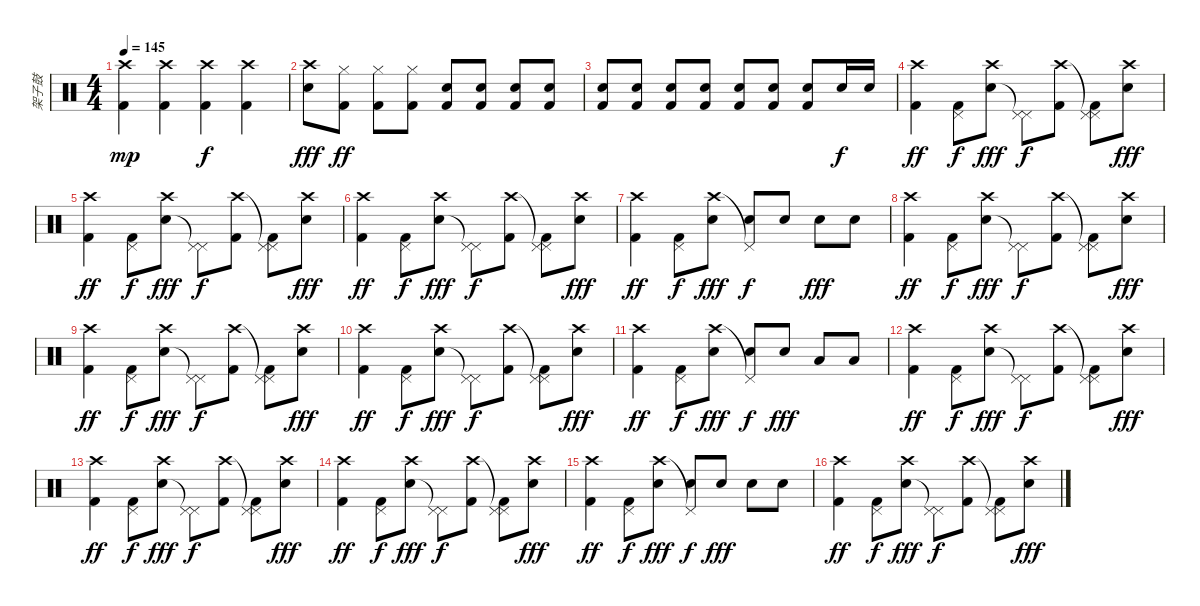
\track ("架子鼓" "架子鼓") {instrument percussion}
\staff {score}
\articulation defaults
\ts (4 4)
\tempo 145
\clef neutral
\ks c
("Kick (hit) 2" "Crash high (hit)").4{dy mp} ("Kick (hit) 2" "Crash high (hit)").4 ("Kick (hit) 2" "Crash high (hit)").4{dy f} ("Kick (hit) 2" "Crash high (hit)").4 |
("Snare (hit) 2" "Crash high (hit)").8{dy fff} ("Kick (hit) 2" "Hi-Hat (closed)").8{dy ff} ("Kick (hit) 2" "Hi-Hat (closed)").8 ("Kick (hit) 2" "Hi-Hat (closed)").8 ("Snare (hit) 2" "Kick (hit) 2").8 ("Snare (hit) 2" "Kick (hit) 2").8 ("Snare (hit) 2" "Kick (hit) 2").8 ("Snare (hit) 2" "Kick (hit) 2").8 |
("Snare (hit) 2" "Kick (hit) 2").8 ("Snare (hit) 2" "Kick (hit) 2").8 ("Snare (hit) 2" "Kick (hit) 2").8 ("Snare (hit) 2" "Kick (hit) 2").8 ("Snare (hit) 2" "Kick (hit) 2").8 ("Snare (hit) 2" "Kick (hit) 2").8 ("Snare (hit) 2" "Kick (hit) 2").8 "Snare (hit) 2".16{dy f} "Snare (hit) 2".16 |
("Kick (hit) 2" "Crash high (hit)").4{dy ff} ("Kick (hit) 2" "Pedal Hi-Hat (hit)").8{dy f} ("Snare (hit) 2" "Crash high (hit)").8{dy fff} ("Pedal Hi-Hat (hit)"{t} "Pedal Hi-Hat (hit)").8{dy f} ("Kick (hit) 2" "Crash high (hit)").8 ("Kick (hit) 2" "Pedal Hi-Hat (hit)"{t} "Pedal Hi-Hat (hit)").8 ("Snare (hit) 2" "Crash high (hit)").8{dy fff} |
("Kick (hit) 2" "Crash high (hit)").4{dy ff} ("Kick (hit) 2" "Pedal Hi-Hat (hit)").8{dy f} ("Snare (hit) 2" "Crash high (hit)").8{dy fff} ("Pedal Hi-Hat (hit)"{t} "Pedal Hi-Hat (hit)").8{dy f} ("Kick (hit) 2" "Crash high (hit)").8 ("Kick (hit) 2" "Pedal Hi-Hat (hit)"{t} "Pedal Hi-Hat (hit)").8 ("Snare (hit) 2" "Crash high (hit)").8{dy fff} |
("Kick (hit) 2" "Crash high (hit)").4{dy ff} ("Kick (hit) 2" "Pedal Hi-Hat (hit)").8{dy f} ("Snare (hit) 2" "Crash high (hit)").8{dy fff} ("Pedal Hi-Hat (hit)"{t} "Pedal Hi-Hat (hit)").8{dy f} ("Kick (hit) 2" "Crash high (hit)").8 ("Kick (hit) 2" "Pedal Hi-Hat (hit)"{t} "Pedal Hi-Hat (hit)").8 ("Snare (hit) 2" "Crash high (hit)").8{dy fff} |
("Kick (hit) 2" "Crash high (hit)").4{dy ff} ("Kick (hit) 2" "Pedal Hi-Hat (hit)").8{dy f} ("Snare (hit) 2" "Crash high (hit)").8{dy fff} ("Snare (hit) 2" "Pedal Hi-Hat (hit)"{t}).8{dy f} "Snare (hit) 2".8 "Snare (hit) 2".8{dy fff} "Snare (hit) 2".8 |
("Kick (hit) 2" "Crash high (hit)").4{dy ff} ("Kick (hit) 2" "Pedal Hi-Hat (hit)").8{dy f} ("Snare (hit) 2" "Crash high (hit)").8{dy fff} ("Pedal Hi-Hat (hit)"{t} "Pedal Hi-Hat (hit)").8{dy f} ("Kick (hit) 2" "Crash high (hit)").8 ("Kick (hit) 2" "Pedal Hi-Hat (hit)"{t} "Pedal Hi-Hat (hit)").8 ("Snare (hit) 2" "Crash high (hit)").8{dy fff} |
("Kick (hit) 2" "Crash high (hit)").4{dy ff} ("Kick (hit) 2" "Pedal Hi-Hat (hit)").8{dy f} ("Snare (hit) 2" "Crash high (hit)").8{dy fff} ("Pedal Hi-Hat (hit)"{t} "Pedal Hi-Hat (hit)").8{dy f} ("Kick (hit) 2" "Crash high (hit)").8 ("Kick (hit) 2" "Pedal Hi-Hat (hit)"{t} "Pedal Hi-Hat (hit)").8 ("Snare (hit) 2" "Crash high (hit)").8{dy fff} |
("Kick (hit) 2" "Crash high (hit)").4{dy ff} ("Kick (hit) 2" "Pedal Hi-Hat (hit)").8{dy f} ("Snare (hit) 2" "Crash high (hit)").8{dy fff} ("Pedal Hi-Hat (hit)"{t} "Pedal Hi-Hat (hit)").8{dy f} ("Kick (hit) 2" "Crash high (hit)").8 ("Kick (hit) 2" "Pedal Hi-Hat (hit)"{t} "Pedal Hi-Hat (hit)").8 ("Snare (hit) 2" "Crash high (hit)").8{dy fff} |
("Kick (hit) 2" "Crash high (hit)").4{dy ff} ("Kick (hit) 2" "Pedal Hi-Hat (hit)").8{dy f} ("Snare (hit) 2" "Crash high (hit)").8{dy fff} ("Snare (hit) 2" "Pedal Hi-Hat (hit)"{t}).8{dy f} "Snare (hit) 2".8{dy fff} "Low Tom (hit)".8 "Low Tom (hit)".8 |
("Kick (hit) 2" "Crash high (hit)").4{dy ff} ("Kick (hit) 2" "Pedal Hi-Hat (hit)").8{dy f} ("Snare (hit) 2" "Crash high (hit)").8{dy fff} ("Pedal Hi-Hat (hit)"{t} "Pedal Hi-Hat (hit)").8{dy f} ("Kick (hit) 2" "Crash high (hit)").8 ("Kick (hit) 2" "Pedal Hi-Hat (hit)"{t} "Pedal Hi-Hat (hit)").8 ("Snare (hit) 2" "Crash high (hit)").8{dy fff} |
("Kick (hit) 2" "Crash high (hit)").4{dy ff} ("Kick (hit) 2" "Pedal Hi-Hat (hit)").8{dy f} ("Snare (hit) 2" "Crash high (hit)").8{dy fff} ("Pedal Hi-Hat (hit)"{t} "Pedal Hi-Hat (hit)").8{dy f} ("Kick (hit) 2" "Crash high (hit)").8 ("Kick (hit) 2" "Pedal Hi-Hat (hit)"{t} "Pedal Hi-Hat (hit)").8 ("Snare (hit) 2" "Crash high (hit)").8{dy fff} |
("Kick (hit) 2" "Crash high (hit)").4{dy ff} ("Kick (hit) 2" "Pedal Hi-Hat (hit)").8{dy f} ("Snare (hit) 2" "Crash high (hit)").8{dy fff} ("Pedal Hi-Hat (hit)"{t} "Pedal Hi-Hat (hit)").8{dy f} ("Kick (hit) 2" "Crash high (hit)").8 ("Kick (hit) 2" "Pedal Hi-Hat (hit)"{t} "Pedal Hi-Hat (hit)").8 ("Snare (hit) 2" "Crash high (hit)").8{dy fff} |
("Kick (hit) 2" "Crash high (hit)").4{dy ff} ("Kick (hit) 2" "Pedal Hi-Hat (hit)").8{dy f} ("Snare (hit) 2" "Crash high (hit)").8{dy fff} ("Snare (hit) 2" "Pedal Hi-Hat (hit)"{t}).8{dy f} "Snare (hit) 2".8{dy fff} "Snare (hit) 2".8 "Snare (hit) 2".8 |
("Kick (hit) 2" "Crash high (hit)").4{dy ff} ("Kick (hit) 2" "Pedal Hi-Hat (hit)").8{dy f} ("Snare (hit) 2" "Crash high (hit)").8{dy fff} ("Pedal Hi-Hat (hit)"{t} "Pedal Hi-Hat (hit)").8{dy f} ("Kick (hit) 2" "Crash high (hit)").8 ("Kick (hit) 2" "Pedal Hi-Hat (hit)"{t} "Pedal Hi-Hat (hit)").8 ("Snare (hit) 2" "Crash high (hit)").8{dy fff}
